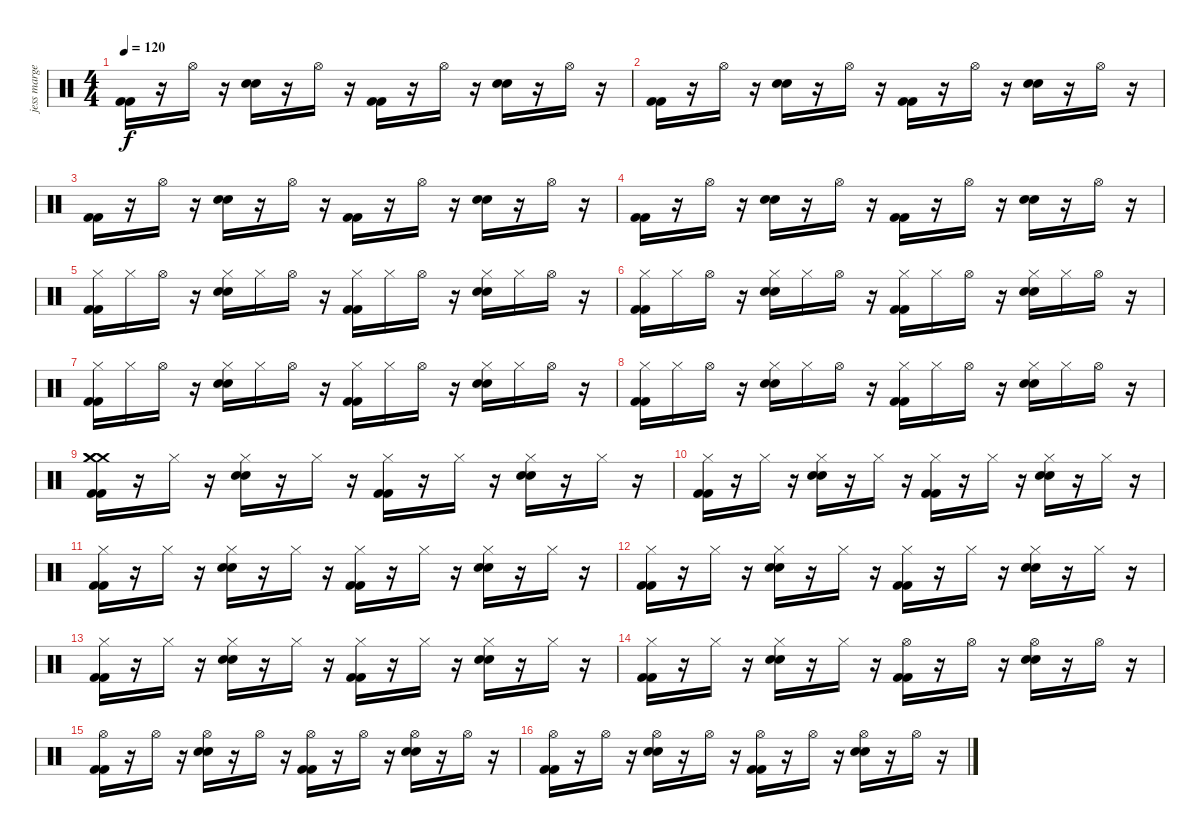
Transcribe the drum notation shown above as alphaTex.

\track ("jess margera" "jess marge") {instrument percussion}
\staff {score}
\articulation defaults
\ts (4 4)
\tempo 120
\clef neutral
\ks c
("Kick (hit) 2" "Kick (hit) 2").16{dy f} r.16 "Hi-Hat (open)".16 r.16 ("Electric Snare (hit)" "Electric Snare (hit)").16 r.16 "Hi-Hat (open)".16 r.16 ("Kick (hit) 2" "Kick (hit) 2").16 r.16 "Hi-Hat (open)".16 r.16 ("Electric Snare (hit)" "Electric Snare (hit)").16 r.16 "Hi-Hat (open)".16 r.16 |
("Kick (hit) 2" "Kick (hit) 2").16 r.16 "Hi-Hat (open)".16 r.16 ("Electric Snare (hit)" "Electric Snare (hit)").16 r.16 "Hi-Hat (open)".16 r.16 ("Kick (hit) 2" "Kick (hit) 2").16 r.16 "Hi-Hat (open)".16 r.16 ("Electric Snare (hit)" "Electric Snare (hit)").16 r.16 "Hi-Hat (open)".16 r.16 |
("Kick (hit) 2" "Kick (hit) 2").16 r.16 "Hi-Hat (open)".16 r.16 ("Electric Snare (hit)" "Electric Snare (hit)").16 r.16 "Hi-Hat (open)".16 r.16 ("Kick (hit) 2" "Kick (hit) 2").16 r.16 "Hi-Hat (open)".16 r.16 ("Electric Snare (hit)" "Electric Snare (hit)").16 r.16 "Hi-Hat (open)".16 r.16 |
("Kick (hit) 2" "Kick (hit) 2").16 r.16 "Hi-Hat (open)".16 r.16 ("Electric Snare (hit)" "Electric Snare (hit)").16 r.16 "Hi-Hat (open)".16 r.16 ("Kick (hit) 2" "Kick (hit) 2").16 r.16 "Hi-Hat (open)".16 r.16 ("Electric Snare (hit)" "Electric Snare (hit)").16 r.16 "Hi-Hat (open)".16 r.16 |
("Hi-Hat (closed)" "Kick (hit) 2" "Kick (hit) 2").16 "Hi-Hat (closed)".16 "Hi-Hat (open)".16 r.16 ("Hi-Hat (closed)" "Electric Snare (hit)" "Electric Snare (hit)").16 "Hi-Hat (closed)".16 "Hi-Hat (open)".16 r.16 ("Hi-Hat (closed)" "Kick (hit) 2" "Kick (hit) 2").16 "Hi-Hat (closed)".16 "Hi-Hat (open)".16 r.16 ("Hi-Hat (closed)" "Electric Snare (hit)" "Electric Snare (hit)").16 "Hi-Hat (closed)".16 "Hi-Hat (open)".16 r.16 |
("Hi-Hat (closed)" "Kick (hit) 2" "Kick (hit) 2").16 "Hi-Hat (closed)".16 "Hi-Hat (open)".16 r.16 ("Hi-Hat (closed)" "Electric Snare (hit)" "Electric Snare (hit)").16 "Hi-Hat (closed)".16 "Hi-Hat (open)".16 r.16 ("Hi-Hat (closed)" "Kick (hit) 2" "Kick (hit) 2").16 "Hi-Hat (closed)".16 "Hi-Hat (open)".16 r.16 ("Hi-Hat (closed)" "Electric Snare (hit)" "Electric Snare (hit)").16 "Hi-Hat (closed)".16 "Hi-Hat (open)".16 r.16 |
("Hi-Hat (closed)" "Kick (hit) 2" "Kick (hit) 2").16 "Hi-Hat (closed)".16 "Hi-Hat (open)".16 r.16 ("Hi-Hat (closed)" "Electric Snare (hit)" "Electric Snare (hit)").16 "Hi-Hat (closed)".16 "Hi-Hat (open)".16 r.16 ("Hi-Hat (closed)" "Kick (hit) 2" "Kick (hit) 2").16 "Hi-Hat (closed)".16 "Hi-Hat (open)".16 r.16 ("Hi-Hat (closed)" "Electric Snare (hit)" "Electric Snare (hit)").16 "Hi-Hat (closed)".16 "Hi-Hat (open)".16 r.16 |
("Hi-Hat (closed)" "Kick (hit) 2" "Kick (hit) 2").16 "Hi-Hat (closed)".16 "Hi-Hat (open)".16 r.16 ("Hi-Hat (closed)" "Electric Snare (hit)" "Electric Snare (hit)").16 "Hi-Hat (closed)".16 "Hi-Hat (open)".16 r.16 ("Hi-Hat (closed)" "Kick (hit) 2" "Kick (hit) 2").16 "Hi-Hat (closed)".16 "Hi-Hat (open)".16 r.16 ("Hi-Hat (closed)" "Electric Snare (hit)" "Electric Snare (hit)").16 "Hi-Hat (closed)".16 "Hi-Hat (open)".16 r.16 |
("Crash medium (hit)" "Crash medium (hit)" "Crash medium (hit)" "Kick (hit) 2" "Kick (hit) 2").16 r.16 "Hi-Hat (closed)".16 r.16 ("Hi-Hat (closed)" "Electric Snare (hit)" "Electric Snare (hit)").16 r.16 "Hi-Hat (closed)".16 r.16 ("Hi-Hat (closed)" "Kick (hit) 2" "Kick (hit) 2").16 r.16 "Hi-Hat (closed)".16 r.16 ("Hi-Hat (closed)" "Electric Snare (hit)" "Electric Snare (hit)").16 r.16 "Hi-Hat (closed)".16 r.16 |
("Hi-Hat (closed)" "Kick (hit) 2" "Kick (hit) 2").16 r.16 "Hi-Hat (closed)".16 r.16 ("Hi-Hat (closed)" "Electric Snare (hit)" "Electric Snare (hit)").16 r.16 "Hi-Hat (closed)".16 r.16 ("Hi-Hat (closed)" "Kick (hit) 2" "Kick (hit) 2").16 r.16 "Hi-Hat (closed)".16 r.16 ("Hi-Hat (closed)" "Electric Snare (hit)" "Electric Snare (hit)").16 r.16 "Hi-Hat (closed)".16 r.16 |
("Hi-Hat (closed)" "Kick (hit) 2" "Kick (hit) 2").16 r.16 "Hi-Hat (closed)".16 r.16 ("Hi-Hat (closed)" "Electric Snare (hit)" "Electric Snare (hit)").16 r.16 "Hi-Hat (closed)".16 r.16 ("Hi-Hat (closed)" "Kick (hit) 2" "Kick (hit) 2").16 r.16 "Hi-Hat (closed)".16 r.16 ("Hi-Hat (closed)" "Electric Snare (hit)" "Electric Snare (hit)").16 r.16 "Hi-Hat (closed)".16 r.16 |
("Hi-Hat (closed)" "Kick (hit) 2" "Kick (hit) 2").16 r.16 "Hi-Hat (closed)".16 r.16 ("Hi-Hat (closed)" "Electric Snare (hit)" "Electric Snare (hit)").16 r.16 "Hi-Hat (closed)".16 r.16 ("Hi-Hat (closed)" "Kick (hit) 2" "Kick (hit) 2").16 r.16 "Hi-Hat (closed)".16 r.16 ("Hi-Hat (closed)" "Electric Snare (hit)" "Electric Snare (hit)").16 r.16 "Hi-Hat (closed)".16 r.16 |
("Hi-Hat (closed)" "Kick (hit) 2" "Kick (hit) 2").16 r.16 "Hi-Hat (closed)".16 r.16 ("Hi-Hat (closed)" "Electric Snare (hit)" "Electric Snare (hit)").16 r.16 "Hi-Hat (closed)".16 r.16 ("Hi-Hat (closed)" "Kick (hit) 2" "Kick (hit) 2").16 r.16 "Hi-Hat (closed)".16 r.16 ("Hi-Hat (closed)" "Electric Snare (hit)" "Electric Snare (hit)").16 r.16 "Hi-Hat (closed)".16 r.16 |
("Hi-Hat (closed)" "Kick (hit) 2" "Kick (hit) 2").16 r.16 "Hi-Hat (closed)".16 r.16 ("Hi-Hat (closed)" "Electric Snare (hit)" "Electric Snare (hit)").16 r.16 "Hi-Hat (closed)".16 r.16 ("Hi-Hat (open)" "Kick (hit) 2" "Kick (hit) 2").16 r.16 "Hi-Hat (open)".16 r.16 ("Hi-Hat (open)" "Electric Snare (hit)" "Electric Snare (hit)").16 r.16 "Hi-Hat (open)".16 r.16 |
("Hi-Hat (open)" "Kick (hit) 2" "Kick (hit) 2").16 r.16 "Hi-Hat (open)".16 r.16 ("Hi-Hat (open)" "Electric Snare (hit)" "Electric Snare (hit)").16 r.16 "Hi-Hat (open)".16 r.16 ("Hi-Hat (open)" "Kick (hit) 2" "Kick (hit) 2").16 r.16 "Hi-Hat (open)".16 r.16 ("Hi-Hat (open)" "Electric Snare (hit)" "Electric Snare (hit)").16 r.16 "Hi-Hat (open)".16 r.16 |
("Hi-Hat (open)" "Kick (hit) 2" "Kick (hit) 2").16 r.16 "Hi-Hat (open)".16 r.16 ("Hi-Hat (open)" "Electric Snare (hit)" "Electric Snare (hit)").16 r.16 "Hi-Hat (open)".16 r.16 ("Hi-Hat (open)" "Kick (hit) 2" "Kick (hit) 2").16 r.16 "Hi-Hat (open)".16 r.16 ("Hi-Hat (open)" "Electric Snare (hit)" "Electric Snare (hit)").16 r.16 "Hi-Hat (open)".16 r.16
